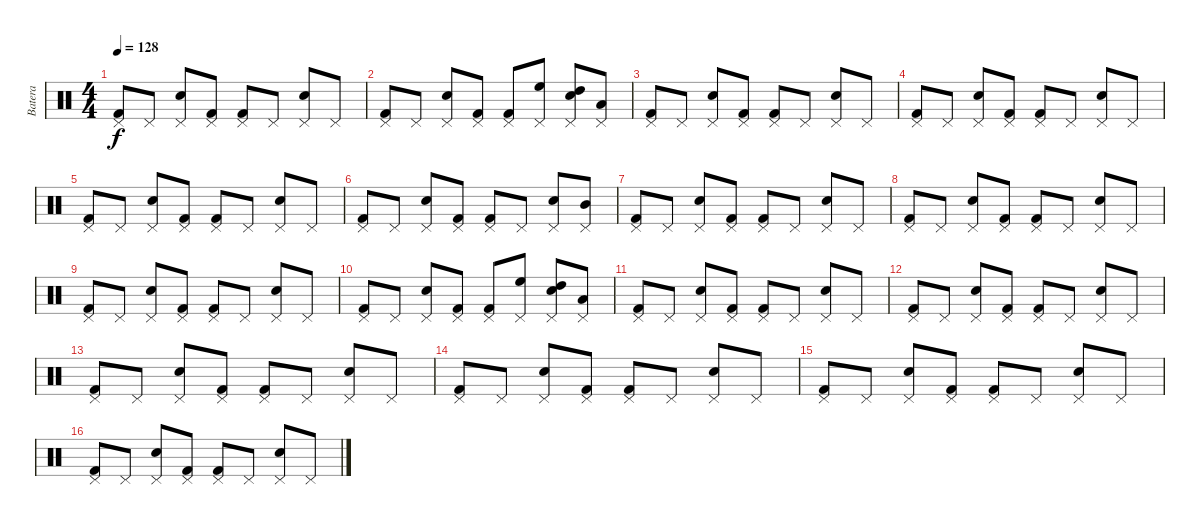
\track ("Batera" "Batera") {instrument percussion}
\staff {score}
\articulation defaults
\ts (4 4)
\tempo 128
\clef neutral
\ks c
("Pedal Hi-Hat (hit)" "Kick (hit) 2").8{dy f} "Pedal Hi-Hat (hit)".8 ("Pedal Hi-Hat (hit)" "Snare (hit) 2").8 ("Pedal Hi-Hat (hit)" "Kick (hit) 2").8 ("Pedal Hi-Hat (hit)" "Kick (hit) 2").8 "Pedal Hi-Hat (hit)".8 ("Pedal Hi-Hat (hit)" "Snare (hit) 2").8 "Pedal Hi-Hat (hit)".8 |
("Pedal Hi-Hat (hit)" "Kick (hit) 2").8 "Pedal Hi-Hat (hit)".8 ("Pedal Hi-Hat (hit)" "Snare (hit) 2").8 ("Pedal Hi-Hat (hit)" "Kick (hit) 2").8 ("Pedal Hi-Hat (hit)" "Kick (hit) 2").8 ("High Floor Tom (hit)" "Pedal Hi-Hat (hit)").8 ("High Tom (hit)" "Pedal Hi-Hat (hit)" "Snare (hit) 2").8 ("Low Tom (hit)" "Pedal Hi-Hat (hit)").8 |
("Pedal Hi-Hat (hit)" "Kick (hit) 2").8 "Pedal Hi-Hat (hit)".8 ("Pedal Hi-Hat (hit)" "Snare (hit) 2").8 ("Pedal Hi-Hat (hit)" "Kick (hit) 2").8 ("Pedal Hi-Hat (hit)" "Kick (hit) 2").8 "Pedal Hi-Hat (hit)".8 ("Pedal Hi-Hat (hit)" "Snare (hit) 2").8 "Pedal Hi-Hat (hit)".8 |
("Pedal Hi-Hat (hit)" "Kick (hit) 2").8 "Pedal Hi-Hat (hit)".8 ("Pedal Hi-Hat (hit)" "Snare (hit) 2").8 ("Pedal Hi-Hat (hit)" "Kick (hit) 2").8 ("Pedal Hi-Hat (hit)" "Kick (hit) 2").8 "Pedal Hi-Hat (hit)".8 ("Pedal Hi-Hat (hit)" "Snare (hit) 2").8 "Pedal Hi-Hat (hit)".8 |
("Pedal Hi-Hat (hit)" "Kick (hit) 2").8 "Pedal Hi-Hat (hit)".8 ("Pedal Hi-Hat (hit)" "Snare (hit) 2").8 ("Pedal Hi-Hat (hit)" "Kick (hit) 2").8 ("Pedal Hi-Hat (hit)" "Kick (hit) 2").8 "Pedal Hi-Hat (hit)".8 ("Pedal Hi-Hat (hit)" "Snare (hit) 2").8 "Pedal Hi-Hat (hit)".8 |
("Pedal Hi-Hat (hit)" "Kick (hit) 2").8 "Pedal Hi-Hat (hit)".8 ("Pedal Hi-Hat (hit)" "Snare (hit) 2").8 ("Pedal Hi-Hat (hit)" "Kick (hit) 2").8 ("Pedal Hi-Hat (hit)" "Kick (hit) 2").8 "Pedal Hi-Hat (hit)".8 ("Pedal Hi-Hat (hit)" "Snare (hit) 2").8 ("Mid Tom (hit)" "Pedal Hi-Hat (hit)").8 |
("Pedal Hi-Hat (hit)" "Kick (hit) 2").8 "Pedal Hi-Hat (hit)".8 ("Pedal Hi-Hat (hit)" "Snare (hit) 2").8 ("Pedal Hi-Hat (hit)" "Kick (hit) 2").8 ("Pedal Hi-Hat (hit)" "Kick (hit) 2").8 "Pedal Hi-Hat (hit)".8 ("Pedal Hi-Hat (hit)" "Snare (hit) 2").8 "Pedal Hi-Hat (hit)".8 |
("Pedal Hi-Hat (hit)" "Kick (hit) 2").8 "Pedal Hi-Hat (hit)".8 ("Pedal Hi-Hat (hit)" "Snare (hit) 2").8 ("Pedal Hi-Hat (hit)" "Kick (hit) 2").8 ("Pedal Hi-Hat (hit)" "Kick (hit) 2").8 "Pedal Hi-Hat (hit)".8 ("Pedal Hi-Hat (hit)" "Snare (hit) 2").8 "Pedal Hi-Hat (hit)".8 |
("Pedal Hi-Hat (hit)" "Kick (hit) 2").8 "Pedal Hi-Hat (hit)".8 ("Pedal Hi-Hat (hit)" "Snare (hit) 2").8 ("Pedal Hi-Hat (hit)" "Kick (hit) 2").8 ("Pedal Hi-Hat (hit)" "Kick (hit) 2").8 "Pedal Hi-Hat (hit)".8 ("Pedal Hi-Hat (hit)" "Snare (hit) 2").8 "Pedal Hi-Hat (hit)".8 |
("Pedal Hi-Hat (hit)" "Kick (hit) 2").8 "Pedal Hi-Hat (hit)".8 ("Pedal Hi-Hat (hit)" "Snare (hit) 2").8 ("Pedal Hi-Hat (hit)" "Kick (hit) 2").8 ("Pedal Hi-Hat (hit)" "Kick (hit) 2").8 ("High Floor Tom (hit)" "Pedal Hi-Hat (hit)").8 ("High Tom (hit)" "Pedal Hi-Hat (hit)" "Snare (hit) 2").8 ("Low Tom (hit)" "Pedal Hi-Hat (hit)").8 |
("Pedal Hi-Hat (hit)" "Kick (hit) 2").8 "Pedal Hi-Hat (hit)".8 ("Pedal Hi-Hat (hit)" "Snare (hit) 2").8 ("Pedal Hi-Hat (hit)" "Kick (hit) 2").8 ("Pedal Hi-Hat (hit)" "Kick (hit) 2").8 "Pedal Hi-Hat (hit)".8 ("Pedal Hi-Hat (hit)" "Snare (hit) 2").8 "Pedal Hi-Hat (hit)".8 |
("Pedal Hi-Hat (hit)" "Kick (hit) 2").8 "Pedal Hi-Hat (hit)".8 ("Pedal Hi-Hat (hit)" "Snare (hit) 2").8 ("Pedal Hi-Hat (hit)" "Kick (hit) 2").8 ("Pedal Hi-Hat (hit)" "Kick (hit) 2").8 "Pedal Hi-Hat (hit)".8 ("Pedal Hi-Hat (hit)" "Snare (hit) 2").8 "Pedal Hi-Hat (hit)".8 |
("Pedal Hi-Hat (hit)" "Kick (hit) 2").8 "Pedal Hi-Hat (hit)".8 ("Pedal Hi-Hat (hit)" "Snare (hit) 2").8 ("Pedal Hi-Hat (hit)" "Kick (hit) 2").8 ("Pedal Hi-Hat (hit)" "Kick (hit) 2").8 "Pedal Hi-Hat (hit)".8 ("Pedal Hi-Hat (hit)" "Snare (hit) 2").8 "Pedal Hi-Hat (hit)".8 |
("Pedal Hi-Hat (hit)" "Kick (hit) 2").8 "Pedal Hi-Hat (hit)".8 ("Pedal Hi-Hat (hit)" "Snare (hit) 2").8 ("Pedal Hi-Hat (hit)" "Kick (hit) 2").8 ("Pedal Hi-Hat (hit)" "Kick (hit) 2").8 "Pedal Hi-Hat (hit)".8 ("Pedal Hi-Hat (hit)" "Snare (hit) 2").8 "Pedal Hi-Hat (hit)".8 |
("Pedal Hi-Hat (hit)" "Kick (hit) 2").8 "Pedal Hi-Hat (hit)".8 ("Pedal Hi-Hat (hit)" "Snare (hit) 2").8 ("Pedal Hi-Hat (hit)" "Kick (hit) 2").8 ("Pedal Hi-Hat (hit)" "Kick (hit) 2").8 "Pedal Hi-Hat (hit)".8 ("Pedal Hi-Hat (hit)" "Snare (hit) 2").8 "Pedal Hi-Hat (hit)".8 |
("Pedal Hi-Hat (hit)" "Kick (hit) 2").8 "Pedal Hi-Hat (hit)".8 ("Pedal Hi-Hat (hit)" "Snare (hit) 2").8 ("Pedal Hi-Hat (hit)" "Kick (hit) 2").8 ("Pedal Hi-Hat (hit)" "Kick (hit) 2").8 "Pedal Hi-Hat (hit)".8 ("Pedal Hi-Hat (hit)" "Snare (hit) 2").8 "Pedal Hi-Hat (hit)".8
